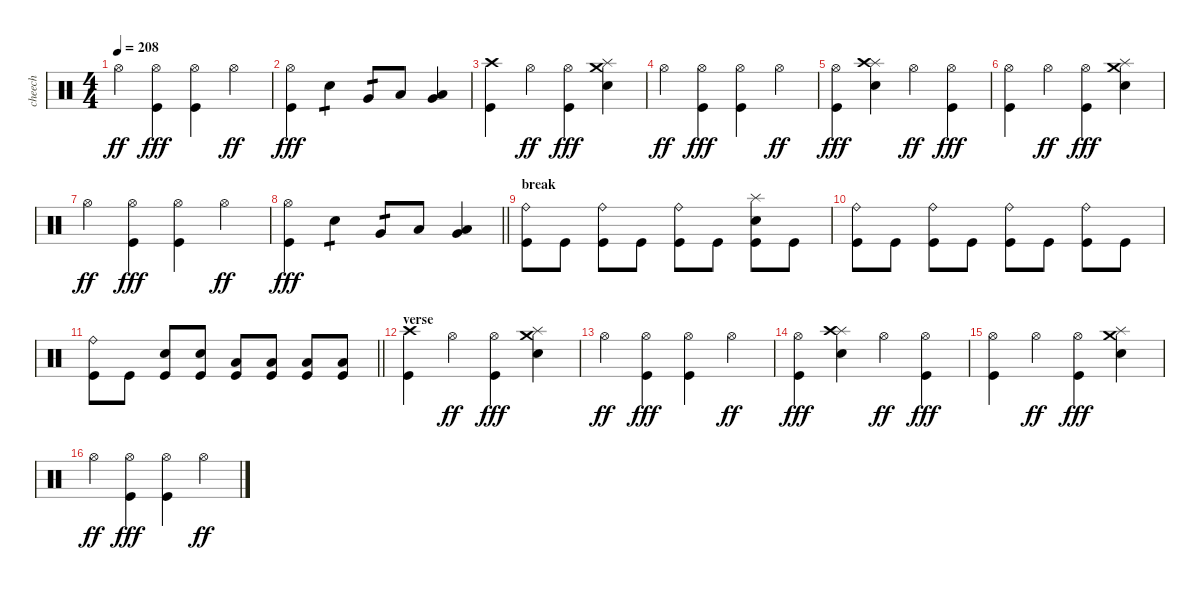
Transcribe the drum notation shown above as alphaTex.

\track ("cheech" "cheech") {instrument percussion}
\staff {score}
\articulation defaults
\ts (4 4)
\tempo 208
\clef neutral
\ks c "Hi-Hat (open)".4{dy ff}
("Hi-Hat (open)" "Kick (hit)").4{dy fff} ("Hi-Hat (open)" "Kick (hit)").4 "Hi-Hat (open)".4{dy ff} |
("Hi-Hat (open)" "Kick (hit)").4{dy fff} "Electric Snare (hit)".4{tp 1} "Very Low Tom (hit)".8{tp 1} "Low Tom (hit)".8 ("Very Low Tom (hit)" "Low Floor Tom (hit)").4 |
("Crash high (hit)" "Kick (hit)").4 "Hi-Hat (open)".4{dy ff} ("Hi-Hat (open)" "Kick (hit)").4{dy fff} ("Splash (hit)" "Crash medium (hit)" "Electric Snare (hit)").4 |
"Hi-Hat (open)".4{dy ff} ("Hi-Hat (open)" "Kick (hit)").4{dy fff} ("Hi-Hat (open)" "Kick (hit)").4 "Hi-Hat (open)".4{dy ff} |
("Hi-Hat (open)" "Kick (hit)").4{dy fff} ("Splash (hit)" "Crash high (hit)" "Electric Snare (hit)").4 "Hi-Hat (open)".4{dy ff} ("Hi-Hat (open)" "Kick (hit)").4{dy fff} |
("Hi-Hat (open)" "Kick (hit)").4 "Hi-Hat (open)".4{dy ff} ("Hi-Hat (open)" "Kick (hit)").4{dy fff} ("Splash (hit)" "Crash medium (hit)" "Electric Snare (hit)").4 |
"Hi-Hat (open)".4{dy ff} ("Hi-Hat (open)" "Kick (hit)").4{dy fff} ("Hi-Hat (open)" "Kick (hit)").4 "Hi-Hat (open)".4{dy ff} |
\barLineRight lightlight
("Hi-Hat (open)" "Kick (hit)").4{dy fff} "Electric Snare (hit)".4{tp 1} "Very Low Tom (hit)".8{tp 1} "Low Tom (hit)".8 ("Very Low Tom (hit)" "Low Floor Tom (hit)").4 |
\section ("" "break")
("Ride (bell)" "Kick (hit)").8 "Kick (hit)".8 ("Ride (bell)" "Kick (hit)").8 "Kick (hit)".8 ("Ride (bell)" "Kick (hit)").8 "Kick (hit)".8 ("Splash (hit)" "Electric Snare (hit)" "Kick (hit)").8 "Kick (hit)".8 |
("Ride (bell)" "Kick (hit)").8 "Kick (hit)".8 ("Ride (bell)" "Kick (hit)").8 "Kick (hit)".8 ("Ride (bell)" "Kick (hit)").8 "Kick (hit)".8 ("Ride (bell)" "Kick (hit)").8 "Kick (hit)".8 |
\barLineRight lightlight
("Ride (bell)" "Kick (hit)").8 "Kick (hit)".8 ("Electric Snare (hit)" "Kick (hit)").8 ("Electric Snare (hit)" "Kick (hit)").8 ("Low Tom (hit)" "Kick (hit)").8 ("Low Tom (hit)" "Kick (hit)").8 ("Low Floor Tom (hit)" "Kick (hit)").8 ("Low Floor Tom (hit)" "Kick (hit)").8 |
\section ("" "verse")
("Crash high (hit)" "Kick (hit)").4 "Hi-Hat (open)".4{dy ff} ("Hi-Hat (open)" "Kick (hit)").4{dy fff} ("Splash (hit)" "Crash medium (hit)" "Electric Snare (hit)").4 |
"Hi-Hat (open)".4{dy ff} ("Hi-Hat (open)" "Kick (hit)").4{dy fff} ("Hi-Hat (open)" "Kick (hit)").4 "Hi-Hat (open)".4{dy ff} |
("Hi-Hat (open)" "Kick (hit)").4{dy fff} ("Splash (hit)" "Crash high (hit)" "Electric Snare (hit)").4 "Hi-Hat (open)".4{dy ff} ("Hi-Hat (open)" "Kick (hit)").4{dy fff} |
("Hi-Hat (open)" "Kick (hit)").4 "Hi-Hat (open)".4{dy ff} ("Hi-Hat (open)" "Kick (hit)").4{dy fff} ("Splash (hit)" "Crash medium (hit)" "Electric Snare (hit)").4 |
"Hi-Hat (open)".4{dy ff} ("Hi-Hat (open)" "Kick (hit)").4{dy fff} ("Hi-Hat (open)" "Kick (hit)").4 "Hi-Hat (open)".4{dy ff}
